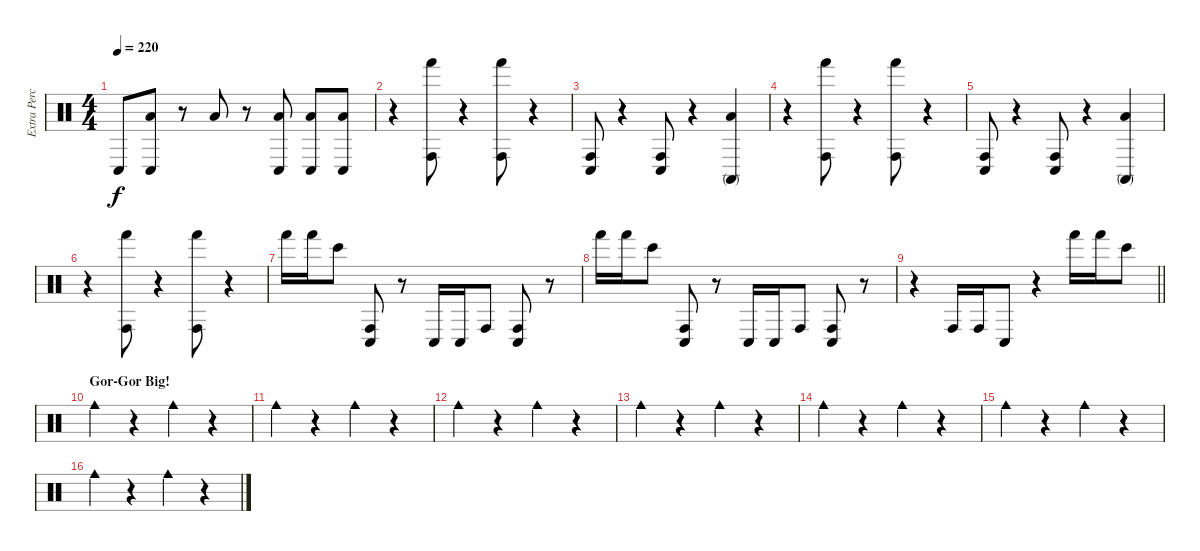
\track ("Extra Percussion" "Extra Perc") {instrument percussion}
\staff {score}
\articulation defaults
\ts (4 4)
\tempo 220
\clef neutral
\ks c "Conga low (hit)".8{dy f}
("Conga low (hit)" "Low Floor Tom (hit)").8 r.8 "Low Floor Tom (hit)".8 r.8 ("Conga low (hit)" "Low Floor Tom (hit)").8 ("Conga low (hit)" "Low Floor Tom (hit)").8 ("Conga low (hit)" "Low Floor Tom (hit)").8 |
r.4 ("Conga high (hit)" "Hand (hit)").8 r.4 ("Conga high (hit)" "Hand (hit)").8 r.4 |
("Conga low (hit)" "Conga high (hit)").8 r.4 ("Conga low (hit)" "Conga high (hit)").8 r.4 ("Conga high (mute)" "Low Floor Tom (hit)").4 |
r.4 ("Conga high (hit)" "Hand (hit)").8 r.4 ("Conga high (hit)" "Hand (hit)").8 r.4 |
("Conga low (hit)" "Conga high (hit)").8 r.4 ("Conga low (hit)" "Conga high (hit)").8 r.4 ("Conga high (mute)" "Low Floor Tom (hit)").4 |
r.4 ("Conga high (hit)" "Hand (hit)").8 r.4 ("Conga high (hit)" "Hand (hit)").8 r.4 |
"Hand (hit)".16 "Hand (hit)".16 "Bongo High (hit)".8 ("Conga low (hit)" "Conga high (hit)").8 r.8 "Conga low (hit)".16 "Conga low (hit)".16 "Conga high (hit)".8 ("Conga low (hit)" "Conga high (hit)").8 r.8 |
"Hand (hit)".16 "Hand (hit)".16 "Bongo High (hit)".8 ("Conga low (hit)" "Conga high (hit)").8 r.8 "Conga low (hit)".16 "Conga low (hit)".16 "Conga high (hit)".8 ("Conga low (hit)" "Conga high (hit)").8 r.8 |
\barLineRight lightlight
r.4 "Conga high (hit)".16 "Conga high (hit)".16 "Conga low (hit)".8 r.4 "Hand (hit)".16 "Hand (hit)".16 "Bongo High (hit)".8 |
\section ("" "Gor-Gor Big!")
"Cowbell medium (hit)".4 r.4 "Cowbell medium (hit)".4 r.4 |
"Cowbell medium (hit)".4 r.4 "Cowbell medium (hit)".4 r.4 |
"Cowbell medium (hit)".4 r.4 "Cowbell medium (hit)".4 r.4 |
"Cowbell medium (hit)".4 r.4 "Cowbell medium (hit)".4 r.4 |
"Cowbell medium (hit)".4 r.4 "Cowbell medium (hit)".4 r.4 |
"Cowbell medium (hit)".4 r.4 "Cowbell medium (hit)".4 r.4 |
"Cowbell medium (hit)".4 r.4 "Cowbell medium (hit)".4 r.4
